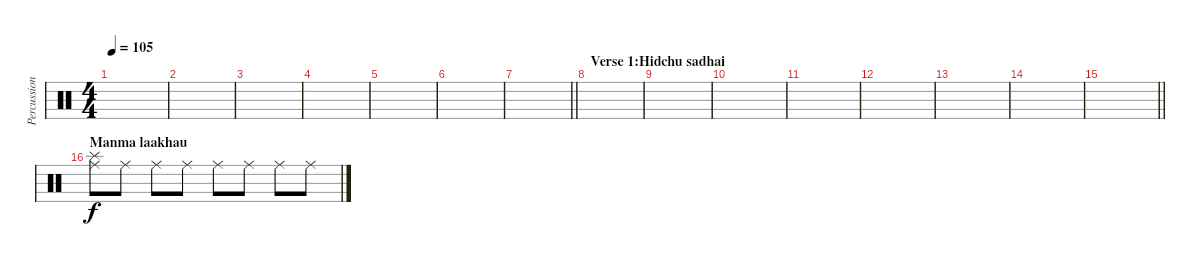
\track ("Percussion" "Percussion") {instrument percussion}
\staff {score}
\articulation defaults
\ts (4 4)
\tempo 105
\clef neutral
\ks c
|
|
|
|
|
|
\barLineRight lightlight
|
\section ("" "Verse 1:Hidchu sadhai")
|
|
|
|
|
|
|
\barLineRight lightlight
|
\section ("" "Manma laakhau")
("Splash (hit)" "Ride (middle)").8 "Ride (middle)".8 "Ride (middle)".8 "Ride (middle)".8 "Ride (middle)".8 "Ride (middle)".8 "Ride (middle)".8 "Ride (middle)".8
